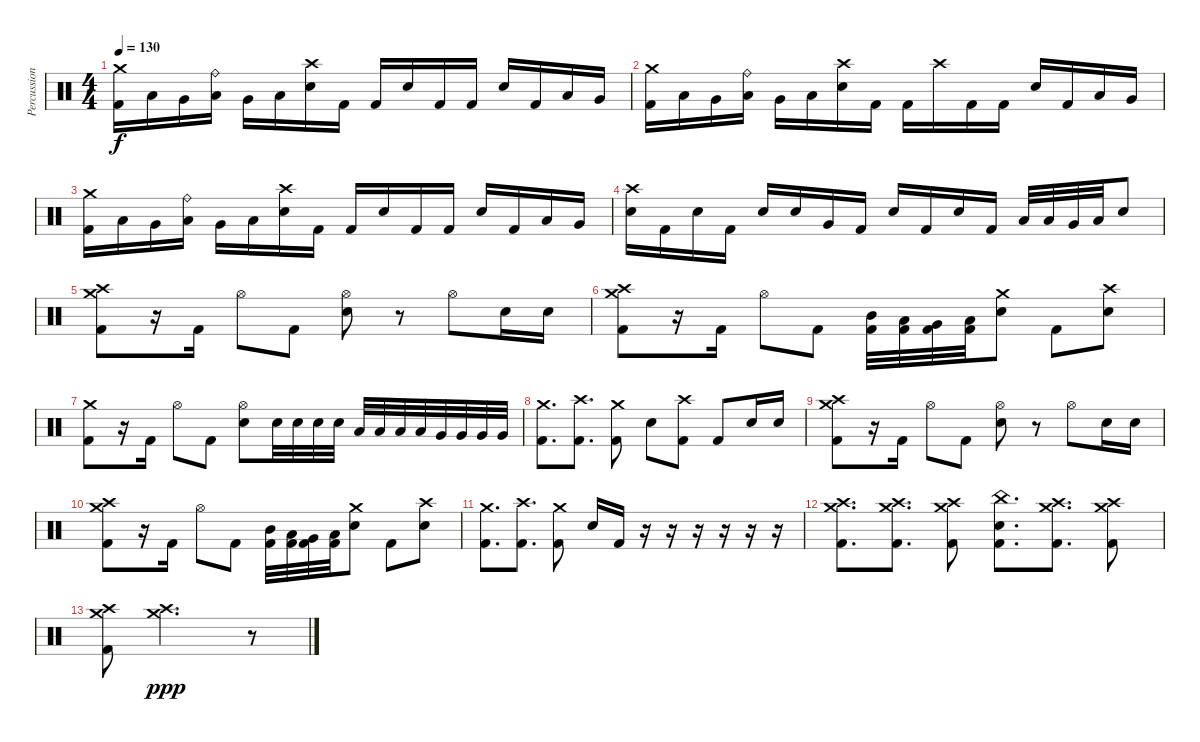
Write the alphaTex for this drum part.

\track ("Percussion" "Percussion") {instrument percussion}
\staff {score}
\articulation defaults
\ts (4 4)
\tempo 130
\clef neutral
\ks c
("Crash medium (hit)" "Kick (hit) 2").16{dy f} "Low Floor Tom (hit)".16 "Very Low Tom (hit)".16 ("Ride (bell)" "Low Tom (hit)").16 "Very Low Tom (hit)".16 "Low Floor Tom (hit)".16 ("Crash high (hit)" "Electric Snare (hit)").16 "Kick (hit) 2".16 "Kick (hit) 2".16 "Electric Snare (hit)".16 "Kick (hit) 2".16 "Kick (hit) 2".16 "Electric Snare (hit)".16 "Kick (hit) 2".16 "Low Tom (hit)".16 "Very Low Tom (hit)".16 |
("Crash medium (hit)" "Kick (hit) 2").16 "Low Floor Tom (hit)".16 "Very Low Tom (hit)".16 ("Ride (bell)" "Low Tom (hit)").16 "Very Low Tom (hit)".16 "Low Floor Tom (hit)".16 ("Crash high (hit)" "Electric Snare (hit)").16 "Kick (hit) 2".16 "Kick (hit) 2".16 "Crash high (hit)".16 "Kick (hit) 2".16 "Kick (hit) 2".16 "Electric Snare (hit)".16 "Kick (hit) 2".16 "Low Tom (hit)".16 "Very Low Tom (hit)".16 |
("Crash medium (hit)" "Kick (hit) 2").16 "Low Floor Tom (hit)".16 "Very Low Tom (hit)".16 ("Ride (bell)" "Low Tom (hit)").16 "Very Low Tom (hit)".16 "Low Floor Tom (hit)".16 ("Crash high (hit)" "Electric Snare (hit)").16 "Kick (hit) 2".16 "Kick (hit) 2".16 "Electric Snare (hit)".16 "Kick (hit) 2".16 "Kick (hit) 2".16 "Electric Snare (hit)".16 "Kick (hit) 2".16 "Low Tom (hit)".16 "Very Low Tom (hit)".16 |
("Crash high (hit)" "Electric Snare (hit)").16 "Kick (hit) 2".16 "Electric Snare (hit)".16 "Kick (hit) 2".16 "Electric Snare (hit)".16 "Electric Snare (hit)".16 "Very Low Tom (hit)".16 "Kick (hit) 2".16 "Electric Snare (hit)".16 "Kick (hit) 2".16 "Electric Snare (hit)".16 "Kick (hit) 2".16 "Low Tom (hit)".32 "Low Tom (hit)".32 "Very Low Tom (hit)".32 "Low Floor Tom (hit)".32 "Electric Snare (hit)".8 |
("Crash medium (hit)" "Crash high (hit)" "Kick (hit) 2").8 r.16 "Kick (hit) 2".16 "Hi-Hat (open)".8 "Kick (hit) 2".8 ("Hi-Hat (open)" "Electric Snare (hit)").8 r.8 "Hi-Hat (open)".8 "Electric Snare (hit)".16 "Electric Snare (hit)".16 |
("Crash medium (hit)" "Crash high (hit)" "Kick (hit) 2").8 r.16 "Kick (hit) 2".16 "Hi-Hat (open)".8 "Kick (hit) 2".8 ("Mid Tom (hit)" "Kick (hit) 2").32 ("Low Tom (hit)" "Kick (hit) 2").32 ("Very Low Tom (hit)" "Kick (hit) 2").32 ("Low Floor Tom (hit)" "Kick (hit) 2").32 ("Crash medium (hit)" "Electric Snare (hit)").8 "Kick (hit) 2".8 ("Crash high (hit)" "Electric Snare (hit)").8 |
("Crash medium (hit)" "Kick (hit) 2").8 r.16 "Kick (hit) 2".16 "Hi-Hat (open)".8 "Kick (hit) 2".8 ("Hi-Hat (open)" "Electric Snare (hit)").8 "Electric Snare (hit)".32 "Electric Snare (hit)".32 "Electric Snare (hit)".32 "Electric Snare (hit)".32 "Low Tom (hit)".32 "Low Tom (hit)".32 "Low Tom (hit)".32 "Low Tom (hit)".32 "Very Low Tom (hit)".32 "Very Low Tom (hit)".32 "Very Low Tom (hit)".32 "Very Low Tom (hit)".32 |
("Crash medium (hit)" "Kick (hit) 2").8{d} ("Crash high (hit)" "Kick (hit) 2").8{d} ("Crash medium (hit)" "Kick (hit) 2").8 "Electric Snare (hit)".8 ("Crash high (hit)" "Kick (hit) 2").8 "Kick (hit) 2".8 "Electric Snare (hit)".16 "Electric Snare (hit)".16 |
("Crash medium (hit)" "Crash high (hit)" "Kick (hit) 2").8 r.16 "Kick (hit) 2".16 "Hi-Hat (open)".8 "Kick (hit) 2".8 ("Hi-Hat (open)" "Electric Snare (hit)").8 r.8 "Hi-Hat (open)".8 "Electric Snare (hit)".16 "Electric Snare (hit)".16 |
("Crash medium (hit)" "Crash high (hit)" "Kick (hit) 2").8 r.16 "Kick (hit) 2".16 "Hi-Hat (open)".8 "Kick (hit) 2".8 ("Mid Tom (hit)" "Kick (hit) 2").32 ("Low Tom (hit)" "Kick (hit) 2").32 ("Very Low Tom (hit)" "Kick (hit) 2").32 ("Low Floor Tom (hit)" "Kick (hit) 2").32 ("Crash medium (hit)" "Electric Snare (hit)").8 "Kick (hit) 2".8 ("Crash high (hit)" "Electric Snare (hit)").8 |
("Crash medium (hit)" "Kick (hit) 2").8{d} ("Crash high (hit)" "Kick (hit) 2").8{d} ("Crash medium (hit)" "Kick (hit) 2").8 "Electric Snare (hit)".16 "Kick (hit) 2".16 r.16 r.16 r.16 r.16 r.16 r.16 |
("Crash medium (hit)" "Crash high (hit)" "Kick (hit) 2").8{d} ("Crash medium (hit)" "Crash high (hit)" "Kick (hit) 2").8{d} ("Crash medium (hit)" "Crash high (hit)" "Kick (hit) 2").8 ("China (hit)" "Electric Snare (hit)" "Kick (hit) 2").8{d} ("Crash medium (hit)" "Crash high (hit)" "Kick (hit) 2").8{d} ("Crash medium (hit)" "Crash high (hit)" "Kick (hit) 2").8 |
("Crash medium (hit)" "Crash high (hit)" "Kick (hit) 2").8 ("Crash medium (hit)" "Crash high (hit)").2{d dy ppp} r.8
